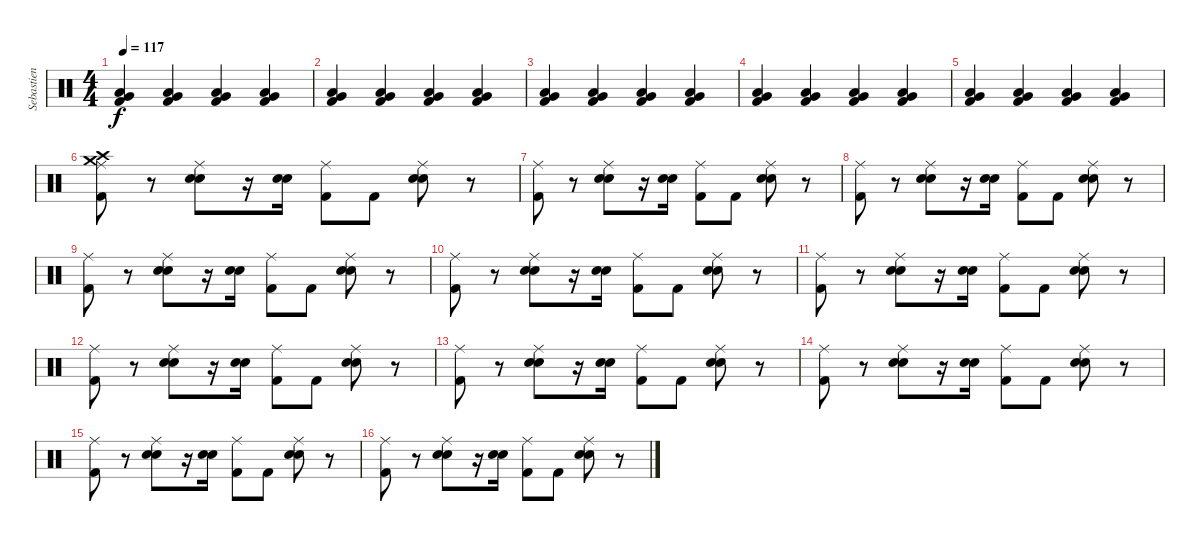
\track ("Sebastien Grainger Drums" "Sebastien ") {instrument percussion}
\staff {score}
\articulation defaults
\ts (4 4)
\tempo 117
\clef neutral
\ks c
("Low Floor Tom (hit)" "Very Low Tom (hit)" "Kick (hit) 2").4{dy f} ("Low Floor Tom (hit)" "Very Low Tom (hit)" "Kick (hit) 2").4 ("Low Floor Tom (hit)" "Very Low Tom (hit)" "Kick (hit) 2").4 ("Low Floor Tom (hit)" "Very Low Tom (hit)" "Kick (hit) 2").4 |
("Low Floor Tom (hit)" "Very Low Tom (hit)" "Kick (hit) 2").4 ("Low Floor Tom (hit)" "Very Low Tom (hit)" "Kick (hit) 2").4 ("Low Floor Tom (hit)" "Very Low Tom (hit)" "Kick (hit) 2").4 ("Low Floor Tom (hit)" "Very Low Tom (hit)" "Kick (hit) 2").4 |
("Low Floor Tom (hit)" "Very Low Tom (hit)" "Kick (hit) 2").4 ("Low Floor Tom (hit)" "Very Low Tom (hit)" "Kick (hit) 2").4 ("Low Floor Tom (hit)" "Very Low Tom (hit)" "Kick (hit) 2").4 ("Low Floor Tom (hit)" "Very Low Tom (hit)" "Kick (hit) 2").4 |
("Low Floor Tom (hit)" "Very Low Tom (hit)" "Kick (hit) 2").4 ("Low Floor Tom (hit)" "Very Low Tom (hit)" "Kick (hit) 2").4 ("Low Floor Tom (hit)" "Very Low Tom (hit)" "Kick (hit) 2").4 ("Low Floor Tom (hit)" "Very Low Tom (hit)" "Kick (hit) 2").4 |
("Low Floor Tom (hit)" "Very Low Tom (hit)" "Kick (hit) 2").4 ("Low Floor Tom (hit)" "Very Low Tom (hit)" "Kick (hit) 2").4 ("Low Floor Tom (hit)" "Very Low Tom (hit)" "Kick (hit) 2").4 ("Low Floor Tom (hit)" "Very Low Tom (hit)" "Kick (hit) 2").4 |
("Crash medium (hit)" "Ride (middle)" "Kick (hit) 2" "Crash high (hit)").8 r.8 ("Ride (middle)" "Snare (hit) 2" "Electric Snare (hit)").8 r.16 ("Snare (hit) 2" "Electric Snare (hit)").16 ("Ride (middle)" "Kick (hit) 2").8 "Kick (hit) 2".8 ("Ride (middle)" "Snare (hit) 2" "Electric Snare (hit)").8 r.8 |
("Ride (middle)" "Kick (hit) 2").8 r.8 ("Ride (middle)" "Snare (hit) 2" "Electric Snare (hit)").8 r.16 ("Snare (hit) 2" "Electric Snare (hit)").16 ("Ride (middle)" "Kick (hit) 2").8 "Kick (hit) 2".8 ("Ride (middle)" "Snare (hit) 2" "Electric Snare (hit)").8 r.8 |
("Ride (middle)" "Kick (hit) 2").8 r.8 ("Ride (middle)" "Snare (hit) 2" "Electric Snare (hit)").8 r.16 ("Snare (hit) 2" "Electric Snare (hit)").16 ("Ride (middle)" "Kick (hit) 2").8 "Kick (hit) 2".8 ("Ride (middle)" "Snare (hit) 2" "Electric Snare (hit)").8 r.8 |
("Ride (middle)" "Kick (hit) 2").8 r.8 ("Ride (middle)" "Snare (hit) 2" "Electric Snare (hit)").8 r.16 ("Snare (hit) 2" "Electric Snare (hit)").16 ("Ride (middle)" "Kick (hit) 2").8 "Kick (hit) 2".8 ("Ride (middle)" "Snare (hit) 2" "Electric Snare (hit)").8 r.8 |
("Ride (middle)" "Kick (hit) 2").8 r.8 ("Ride (middle)" "Snare (hit) 2" "Electric Snare (hit)").8 r.16 ("Snare (hit) 2" "Electric Snare (hit)").16 ("Ride (middle)" "Kick (hit) 2").8 "Kick (hit) 2".8 ("Ride (middle)" "Snare (hit) 2" "Electric Snare (hit)").8 r.8 |
("Ride (middle)" "Kick (hit) 2").8 r.8 ("Ride (middle)" "Snare (hit) 2" "Electric Snare (hit)").8 r.16 ("Snare (hit) 2" "Electric Snare (hit)").16 ("Ride (middle)" "Kick (hit) 2").8 "Kick (hit) 2".8 ("Ride (middle)" "Snare (hit) 2" "Electric Snare (hit)").8 r.8 |
("Ride (middle)" "Kick (hit) 2").8 r.8 ("Ride (middle)" "Snare (hit) 2" "Electric Snare (hit)").8 r.16 ("Snare (hit) 2" "Electric Snare (hit)").16 ("Ride (middle)" "Kick (hit) 2").8 "Kick (hit) 2".8 ("Ride (middle)" "Snare (hit) 2" "Electric Snare (hit)").8 r.8 |
("Ride (middle)" "Kick (hit) 2").8 r.8 ("Ride (middle)" "Snare (hit) 2" "Electric Snare (hit)").8 r.16 ("Snare (hit) 2" "Electric Snare (hit)").16 ("Ride (middle)" "Kick (hit) 2").8 "Kick (hit) 2".8 ("Ride (middle)" "Snare (hit) 2" "Electric Snare (hit)").8 r.8 |
("Ride (middle)" "Kick (hit) 2").8 r.8 ("Ride (middle)" "Snare (hit) 2" "Electric Snare (hit)").8 r.16 ("Snare (hit) 2" "Electric Snare (hit)").16 ("Ride (middle)" "Kick (hit) 2").8 "Kick (hit) 2".8 ("Ride (middle)" "Snare (hit) 2" "Electric Snare (hit)").8 r.8 |
("Ride (middle)" "Kick (hit) 2").8 r.8 ("Ride (middle)" "Snare (hit) 2" "Electric Snare (hit)").8 r.16 ("Snare (hit) 2" "Electric Snare (hit)").16 ("Ride (middle)" "Kick (hit) 2").8 "Kick (hit) 2".8 ("Ride (middle)" "Snare (hit) 2" "Electric Snare (hit)").8 r.8 |
("Ride (middle)" "Kick (hit) 2").8 r.8 ("Ride (middle)" "Snare (hit) 2" "Electric Snare (hit)").8 r.16 ("Snare (hit) 2" "Electric Snare (hit)").16 ("Ride (middle)" "Kick (hit) 2").8 "Kick (hit) 2".8 ("Ride (middle)" "Snare (hit) 2" "Electric Snare (hit)").8 r.8
